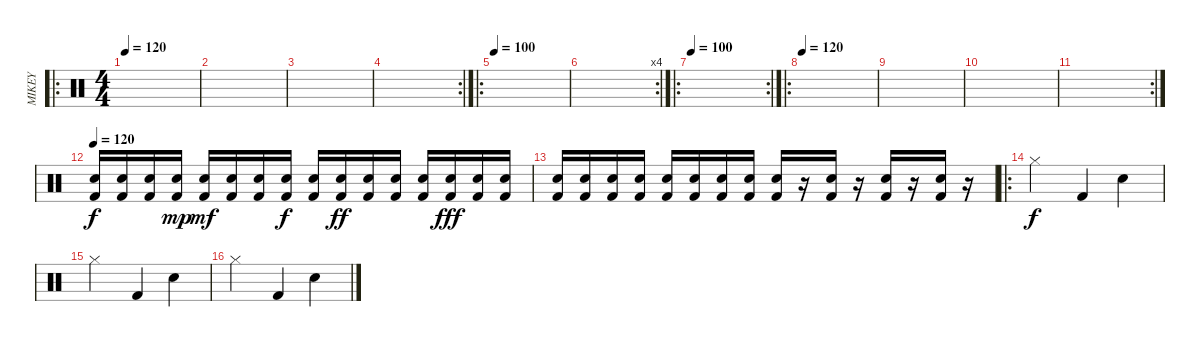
\track ("MIKEY" "MIKEY") {instrument percussion}
\staff {score}
\articulation defaults
\ro
\ts (4 4)
\tempo 120
\tempo 60
\tempo 120
\clef neutral
\ks c
|
|
|
\rc 2
|
\ro
\tempo 100
|
\rc 4
|
\ro
\rc 2
\tempo 100
|
\ro
\tempo 120
|
|
|
\rc 2
|
\tempo 120
("Kick (hit) 2" "Electric Snare (hit)").16 ("Kick (hit) 2" "Electric Snare (hit)").16 ("Kick (hit) 2" "Electric Snare (hit)").16 ("Kick (hit) 2" "Electric Snare (hit)").16{dy mp} ("Kick (hit) 2" "Electric Snare (hit)").16{dy mf} ("Kick (hit) 2" "Electric Snare (hit)").16 ("Kick (hit) 2" "Electric Snare (hit)").16 ("Kick (hit) 2" "Electric Snare (hit)").16{dy f} ("Kick (hit) 2" "Electric Snare (hit)").16 ("Kick (hit) 2" "Electric Snare (hit)").16{dy ff} ("Kick (hit) 2" "Electric Snare (hit)").16 ("Kick (hit) 2" "Electric Snare (hit)").16 ("Kick (hit) 2" "Electric Snare (hit)").16 ("Kick (hit) 2" "Electric Snare (hit)").16{dy fff} ("Kick (hit) 2" "Electric Snare (hit)").16 ("Kick (hit) 2" "Electric Snare (hit)").16 |
("Kick (hit) 2" "Electric Snare (hit)").16 ("Kick (hit) 2" "Electric Snare (hit)").16 ("Kick (hit) 2" "Electric Snare (hit)").16 ("Kick (hit) 2" "Electric Snare (hit)").16 ("Kick (hit) 2" "Electric Snare (hit)").16 ("Kick (hit) 2" "Electric Snare (hit)").16 ("Kick (hit) 2" "Electric Snare (hit)").16 ("Kick (hit) 2" "Electric Snare (hit)").16 ("Kick (hit) 2" "Electric Snare (hit)").16 r.16 ("Kick (hit) 2" "Electric Snare (hit)").16 r.16 ("Kick (hit) 2" "Electric Snare (hit)").16 r.16 ("Kick (hit) 2" "Electric Snare (hit)").16 r.16 |
\ro "Hi-Hat (closed)".2{dy f} "Kick (hit) 2".4 "Electric Snare (hit)".4
|
"Hi-Hat (closed)".2 "Kick (hit) 2".4 "Electric Snare (hit)".4 |
"Hi-Hat (closed)".2 "Kick (hit) 2".4 "Electric Snare (hit)".4
